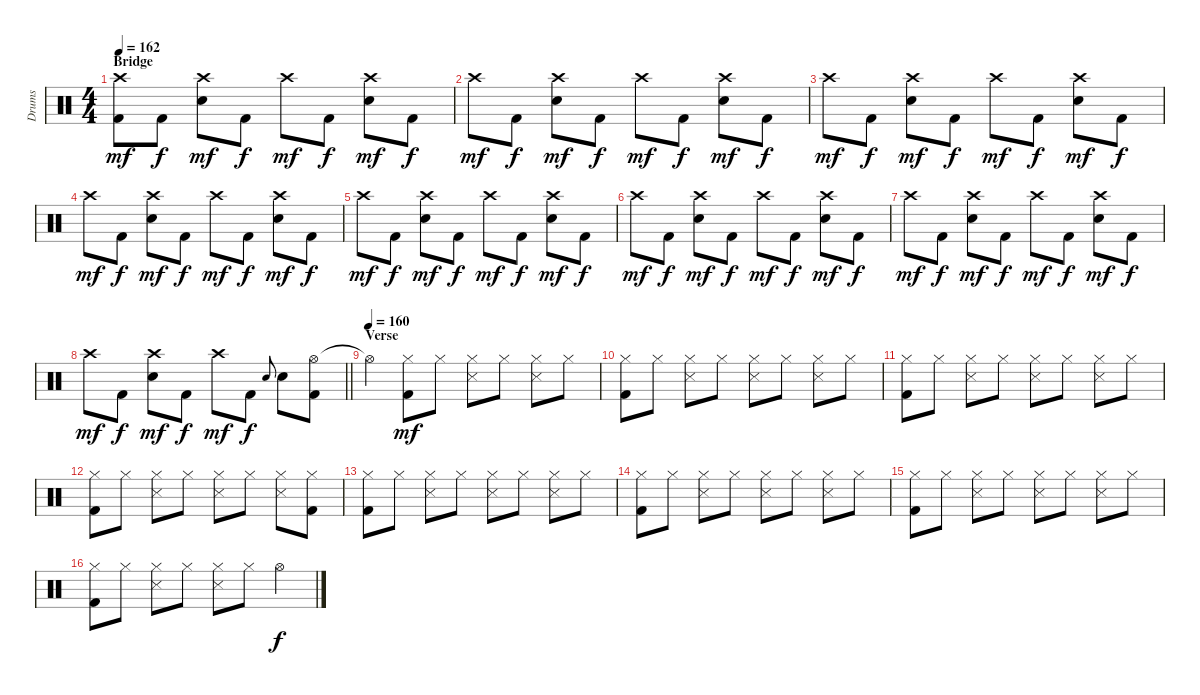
\track ("Drums" "Drums") {instrument percussion}
\staff {score}
\articulation defaults
\ts (4 4)
\section ("" "Bridge")
\tempo 162
\clef neutral
\ks c
("Crash high (hit)" "Kick (hit) 2").8{dy mf} "Kick (hit) 2".8{dy f} ("Crash high (hit)" "Electric Snare (hit)").8{dy mf} "Kick (hit) 2".8{dy f} "Crash high (hit)".8{dy mf} "Kick (hit) 2".8{dy f} ("Crash high (hit)" "Electric Snare (hit)").8{dy mf} "Kick (hit) 2".8{dy f} |
"Crash high (hit)".8{dy mf} "Kick (hit) 2".8{dy f} ("Crash high (hit)" "Electric Snare (hit)").8{dy mf} "Kick (hit) 2".8{dy f} "Crash high (hit)".8{dy mf} "Kick (hit) 2".8{dy f} ("Crash high (hit)" "Electric Snare (hit)").8{dy mf} "Kick (hit) 2".8{dy f} |
"Crash high (hit)".8{dy mf} "Kick (hit) 2".8{dy f} ("Crash high (hit)" "Electric Snare (hit)").8{dy mf} "Kick (hit) 2".8{dy f} "Crash high (hit)".8{dy mf} "Kick (hit) 2".8{dy f} ("Crash high (hit)" "Electric Snare (hit)").8{dy mf} "Kick (hit) 2".8{dy f} |
"Crash high (hit)".8{dy mf} "Kick (hit) 2".8{dy f} ("Crash high (hit)" "Electric Snare (hit)").8{dy mf} "Kick (hit) 2".8{dy f} "Crash high (hit)".8{dy mf} "Kick (hit) 2".8{dy f} ("Crash high (hit)" "Electric Snare (hit)").8{dy mf} "Kick (hit) 2".8{dy f} |
"Crash high (hit)".8{dy mf} "Kick (hit) 2".8{dy f} ("Crash high (hit)" "Electric Snare (hit)").8{dy mf} "Kick (hit) 2".8{dy f} "Crash high (hit)".8{dy mf} "Kick (hit) 2".8{dy f} ("Crash high (hit)" "Electric Snare (hit)").8{dy mf} "Kick (hit) 2".8{dy f} |
"Crash high (hit)".8{dy mf} "Kick (hit) 2".8{dy f} ("Crash high (hit)" "Electric Snare (hit)").8{dy mf} "Kick (hit) 2".8{dy f} "Crash high (hit)".8{dy mf} "Kick (hit) 2".8{dy f} ("Crash high (hit)" "Electric Snare (hit)").8{dy mf} "Kick (hit) 2".8{dy f} |
"Crash high (hit)".8{dy mf} "Kick (hit) 2".8{dy f} ("Crash high (hit)" "Electric Snare (hit)").8{dy mf} "Kick (hit) 2".8{dy f} "Crash high (hit)".8{dy mf} "Kick (hit) 2".8{dy f} ("Crash high (hit)" "Electric Snare (hit)").8{dy mf} "Kick (hit) 2".8{dy f} |
\barLineRight lightlight "Crash high (hit)".8{dy mf} "Kick (hit) 2".8{dy f}
("Crash high (hit)" "Electric Snare (hit)").8{dy mf} "Kick (hit) 2".8{dy f} "Crash high (hit)".8{dy mf} "Kick (hit) 2".8{dy f} "Electric Snare (hit)".8{gr onbeat} "Electric Snare (hit)".8 ("Hi-Hat (open)" "Kick (hit) 2").8 |
\section ("" "Verse")
\tempo (160)
"Hi-Hat (open)"{t}.4 ("Hi-Hat (closed)" "Kick (hit) 2").8{dy mf} "Hi-Hat (closed)".8 ("Hi-Hat (closed)" "Snare (side stick) 3").8 "Hi-Hat (closed)".8 ("Hi-Hat (closed)" "Snare (side stick) 3").8 "Hi-Hat (closed)".8 |
("Hi-Hat (closed)" "Kick (hit) 2").8 "Hi-Hat (closed)".8 ("Hi-Hat (closed)" "Snare (side stick) 3").8 "Hi-Hat (closed)".8 ("Hi-Hat (closed)" "Snare (side stick) 3").8 "Hi-Hat (closed)".8 ("Hi-Hat (closed)" "Snare (side stick) 3").8 "Hi-Hat (closed)".8 |
("Hi-Hat (closed)" "Kick (hit) 2").8 "Hi-Hat (closed)".8 ("Hi-Hat (closed)" "Snare (side stick) 3").8 "Hi-Hat (closed)".8 ("Hi-Hat (closed)" "Snare (side stick) 3").8 "Hi-Hat (closed)".8 ("Hi-Hat (closed)" "Snare (side stick) 3").8 "Hi-Hat (closed)".8 |
("Hi-Hat (closed)" "Kick (hit) 2").8 "Hi-Hat (closed)".8 ("Hi-Hat (closed)" "Snare (side stick) 3").8 "Hi-Hat (closed)".8 ("Hi-Hat (closed)" "Snare (side stick) 3").8 "Hi-Hat (closed)".8 ("Hi-Hat (closed)" "Snare (side stick) 3").8 ("Hi-Hat (closed)" "Kick (hit) 2").8 |
("Hi-Hat (closed)" "Kick (hit) 2").8 "Hi-Hat (closed)".8 ("Hi-Hat (closed)" "Snare (side stick) 3").8 "Hi-Hat (closed)".8 ("Hi-Hat (closed)" "Snare (side stick) 3").8 "Hi-Hat (closed)".8 ("Hi-Hat (closed)" "Snare (side stick) 3").8 "Hi-Hat (closed)".8 |
("Hi-Hat (closed)" "Kick (hit) 2").8 "Hi-Hat (closed)".8 ("Hi-Hat (closed)" "Snare (side stick) 3").8 "Hi-Hat (closed)".8 ("Hi-Hat (closed)" "Snare (side stick) 3").8 "Hi-Hat (closed)".8 ("Hi-Hat (closed)" "Snare (side stick) 3").8 "Hi-Hat (closed)".8 |
("Hi-Hat (closed)" "Kick (hit) 2").8 "Hi-Hat (closed)".8 ("Hi-Hat (closed)" "Snare (side stick) 3").8 "Hi-Hat (closed)".8 ("Hi-Hat (closed)" "Snare (side stick) 3").8 "Hi-Hat (closed)".8 ("Hi-Hat (closed)" "Snare (side stick) 3").8 "Hi-Hat (closed)".8 |
("Hi-Hat (closed)" "Kick (hit) 2").8 "Hi-Hat (closed)".8 ("Hi-Hat (closed)" "Snare (side stick) 3").8 "Hi-Hat (closed)".8 ("Hi-Hat (closed)" "Snare (side stick) 3").8 "Hi-Hat (closed)".8 "Hi-Hat (open)".4{dy f}
